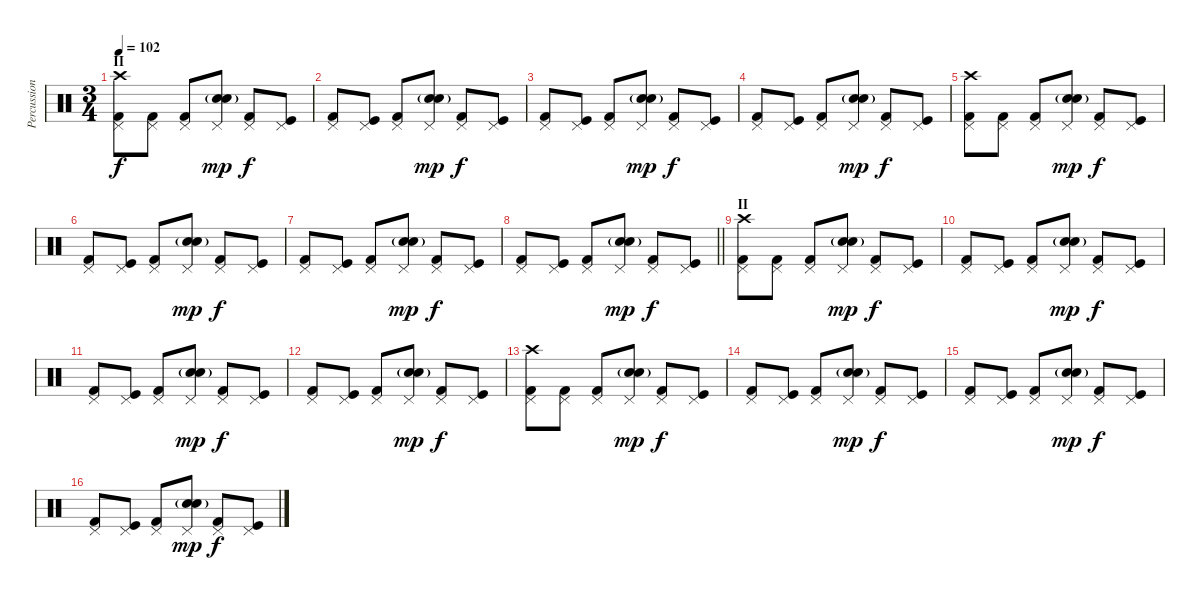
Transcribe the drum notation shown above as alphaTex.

\track ("Percussion" "Percussion") {instrument percussion}
\staff {score}
\articulation defaults
\ts (3 4)
\section ("" "II")
\tempo 102
\clef neutral
\ks c
("Crash high (hit)" "Kick (hit) 2" "Pedal Hi-Hat (hit)").8{dy f} ("Kick (hit) 2" "Pedal Hi-Hat (hit)").8 ("Kick (hit) 2" "Pedal Hi-Hat (hit)").8 ("Electric Snare (hit)" "Snare (hit) 2"{g} "Pedal Hi-Hat (hit)").8{dy mp} ("Kick (hit) 2" "Pedal Hi-Hat (hit)").8{dy f} ("Kick (hit)" "Pedal Hi-Hat (hit)").8 |
("Kick (hit) 2" "Pedal Hi-Hat (hit)").8 ("Kick (hit)" "Pedal Hi-Hat (hit)").8 ("Kick (hit) 2" "Pedal Hi-Hat (hit)").8 ("Electric Snare (hit)" "Snare (hit) 2"{g} "Pedal Hi-Hat (hit)").8{dy mp} ("Kick (hit) 2" "Pedal Hi-Hat (hit)").8{dy f} ("Kick (hit)" "Pedal Hi-Hat (hit)").8 |
("Kick (hit) 2" "Pedal Hi-Hat (hit)").8 ("Kick (hit)" "Pedal Hi-Hat (hit)").8 ("Kick (hit) 2" "Pedal Hi-Hat (hit)").8 ("Electric Snare (hit)" "Snare (hit) 2"{g} "Pedal Hi-Hat (hit)").8{dy mp} ("Kick (hit) 2" "Pedal Hi-Hat (hit)").8{dy f} ("Kick (hit)" "Pedal Hi-Hat (hit)").8 |
("Kick (hit) 2" "Pedal Hi-Hat (hit)").8 ("Kick (hit)" "Pedal Hi-Hat (hit)").8 ("Kick (hit) 2" "Pedal Hi-Hat (hit)").8 ("Electric Snare (hit)" "Snare (hit) 2"{g} "Pedal Hi-Hat (hit)").8{dy mp} ("Kick (hit) 2" "Pedal Hi-Hat (hit)").8{dy f} ("Kick (hit)" "Pedal Hi-Hat (hit)").8 |
("Crash high (hit)" "Kick (hit) 2" "Pedal Hi-Hat (hit)").8 ("Kick (hit) 2" "Pedal Hi-Hat (hit)").8 ("Kick (hit) 2" "Pedal Hi-Hat (hit)").8 ("Electric Snare (hit)" "Snare (hit) 2"{g} "Pedal Hi-Hat (hit)").8{dy mp} ("Kick (hit) 2" "Pedal Hi-Hat (hit)").8{dy f} ("Kick (hit)" "Pedal Hi-Hat (hit)").8 |
("Kick (hit) 2" "Pedal Hi-Hat (hit)").8 ("Kick (hit)" "Pedal Hi-Hat (hit)").8 ("Kick (hit) 2" "Pedal Hi-Hat (hit)").8 ("Electric Snare (hit)" "Snare (hit) 2"{g} "Pedal Hi-Hat (hit)").8{dy mp} ("Kick (hit) 2" "Pedal Hi-Hat (hit)").8{dy f} ("Kick (hit)" "Pedal Hi-Hat (hit)").8 |
("Kick (hit) 2" "Pedal Hi-Hat (hit)").8 ("Kick (hit)" "Pedal Hi-Hat (hit)").8 ("Kick (hit) 2" "Pedal Hi-Hat (hit)").8 ("Electric Snare (hit)" "Snare (hit) 2"{g} "Pedal Hi-Hat (hit)").8{dy mp} ("Kick (hit) 2" "Pedal Hi-Hat (hit)").8{dy f} ("Kick (hit)" "Pedal Hi-Hat (hit)").8 |
\barLineRight lightlight
("Kick (hit) 2" "Pedal Hi-Hat (hit)").8 ("Kick (hit)" "Pedal Hi-Hat (hit)").8 ("Kick (hit) 2" "Pedal Hi-Hat (hit)").8 ("Electric Snare (hit)" "Snare (hit) 2"{g} "Pedal Hi-Hat (hit)").8{dy mp} ("Kick (hit) 2" "Pedal Hi-Hat (hit)").8{dy f} ("Kick (hit)" "Pedal Hi-Hat (hit)").8 |
\section ("" "II")
("Crash high (hit)" "Kick (hit) 2" "Pedal Hi-Hat (hit)").8 ("Kick (hit) 2" "Pedal Hi-Hat (hit)").8 ("Kick (hit) 2" "Pedal Hi-Hat (hit)").8 ("Electric Snare (hit)" "Snare (hit) 2"{g} "Pedal Hi-Hat (hit)").8{dy mp} ("Kick (hit) 2" "Pedal Hi-Hat (hit)").8{dy f} ("Kick (hit)" "Pedal Hi-Hat (hit)").8 |
("Kick (hit) 2" "Pedal Hi-Hat (hit)").8 ("Kick (hit)" "Pedal Hi-Hat (hit)").8 ("Kick (hit) 2" "Pedal Hi-Hat (hit)").8 ("Electric Snare (hit)" "Snare (hit) 2"{g} "Pedal Hi-Hat (hit)").8{dy mp} ("Kick (hit) 2" "Pedal Hi-Hat (hit)").8{dy f} ("Kick (hit)" "Pedal Hi-Hat (hit)").8 |
("Kick (hit) 2" "Pedal Hi-Hat (hit)").8 ("Kick (hit)" "Pedal Hi-Hat (hit)").8 ("Kick (hit) 2" "Pedal Hi-Hat (hit)").8 ("Electric Snare (hit)" "Snare (hit) 2"{g} "Pedal Hi-Hat (hit)").8{dy mp} ("Kick (hit) 2" "Pedal Hi-Hat (hit)").8{dy f} ("Kick (hit)" "Pedal Hi-Hat (hit)").8 |
("Kick (hit) 2" "Pedal Hi-Hat (hit)").8 ("Kick (hit)" "Pedal Hi-Hat (hit)").8 ("Kick (hit) 2" "Pedal Hi-Hat (hit)").8 ("Electric Snare (hit)" "Snare (hit) 2"{g} "Pedal Hi-Hat (hit)").8{dy mp} ("Kick (hit) 2" "Pedal Hi-Hat (hit)").8{dy f} ("Kick (hit)" "Pedal Hi-Hat (hit)").8 |
("Crash high (hit)" "Kick (hit) 2" "Pedal Hi-Hat (hit)").8 ("Kick (hit) 2" "Pedal Hi-Hat (hit)").8 ("Kick (hit) 2" "Pedal Hi-Hat (hit)").8 ("Electric Snare (hit)" "Snare (hit) 2"{g} "Pedal Hi-Hat (hit)").8{dy mp} ("Kick (hit) 2" "Pedal Hi-Hat (hit)").8{dy f} ("Kick (hit)" "Pedal Hi-Hat (hit)").8 |
("Kick (hit) 2" "Pedal Hi-Hat (hit)").8 ("Kick (hit)" "Pedal Hi-Hat (hit)").8 ("Kick (hit) 2" "Pedal Hi-Hat (hit)").8 ("Electric Snare (hit)" "Snare (hit) 2"{g} "Pedal Hi-Hat (hit)").8{dy mp} ("Kick (hit) 2" "Pedal Hi-Hat (hit)").8{dy f} ("Kick (hit)" "Pedal Hi-Hat (hit)").8 |
("Kick (hit) 2" "Pedal Hi-Hat (hit)").8 ("Kick (hit)" "Pedal Hi-Hat (hit)").8 ("Kick (hit) 2" "Pedal Hi-Hat (hit)").8 ("Electric Snare (hit)" "Snare (hit) 2"{g} "Pedal Hi-Hat (hit)").8{dy mp} ("Kick (hit) 2" "Pedal Hi-Hat (hit)").8{dy f} ("Kick (hit)" "Pedal Hi-Hat (hit)").8 |
("Kick (hit) 2" "Pedal Hi-Hat (hit)").8 ("Kick (hit)" "Pedal Hi-Hat (hit)").8 ("Kick (hit) 2" "Pedal Hi-Hat (hit)").8 ("Electric Snare (hit)" "Snare (hit) 2"{g} "Pedal Hi-Hat (hit)").8{dy mp} ("Kick (hit) 2" "Pedal Hi-Hat (hit)").8{dy f} ("Kick (hit)" "Pedal Hi-Hat (hit)").8
